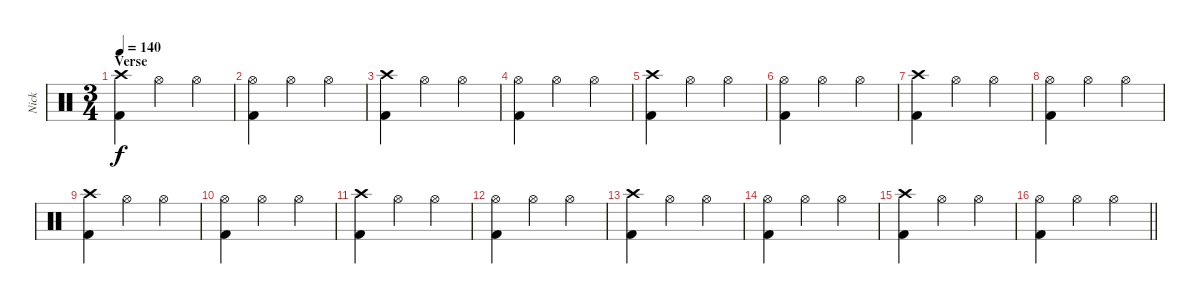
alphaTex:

\track ("Nick" "Nick") {instrument percussion}
\staff {score}
\articulation defaults
\ts (3 4)
\section ("" "Verse")
\tempo 140
\clef neutral
\ks c
("Crash high (hit)" "Kick (hit) 2").4{dy f} "Hi-Hat (open)".4 "Hi-Hat (open)".4 |
("Hi-Hat (open)" "Kick (hit) 2").4 "Hi-Hat (open)".4 "Hi-Hat (open)".4 |
("Crash high (hit)" "Kick (hit) 2").4 "Hi-Hat (open)".4 "Hi-Hat (open)".4 |
("Hi-Hat (open)" "Kick (hit) 2").4 "Hi-Hat (open)".4 "Hi-Hat (open)".4 |
("Crash high (hit)" "Kick (hit) 2").4 "Hi-Hat (open)".4 "Hi-Hat (open)".4 |
("Hi-Hat (open)" "Kick (hit) 2").4 "Hi-Hat (open)".4 "Hi-Hat (open)".4 |
("Crash high (hit)" "Kick (hit) 2").4 "Hi-Hat (open)".4 "Hi-Hat (open)".4 |
("Hi-Hat (open)" "Kick (hit) 2").4 "Hi-Hat (open)".4 "Hi-Hat (open)".4 |
("Crash high (hit)" "Kick (hit) 2").4 "Hi-Hat (open)".4 "Hi-Hat (open)".4 |
("Hi-Hat (open)" "Kick (hit) 2").4 "Hi-Hat (open)".4 "Hi-Hat (open)".4 |
("Crash high (hit)" "Kick (hit) 2").4 "Hi-Hat (open)".4 "Hi-Hat (open)".4 |
("Hi-Hat (open)" "Kick (hit) 2").4 "Hi-Hat (open)".4 "Hi-Hat (open)".4 |
("Crash high (hit)" "Kick (hit) 2").4 "Hi-Hat (open)".4 "Hi-Hat (open)".4 |
("Hi-Hat (open)" "Kick (hit) 2").4 "Hi-Hat (open)".4 "Hi-Hat (open)".4 |
("Crash high (hit)" "Kick (hit) 2").4 "Hi-Hat (open)".4 "Hi-Hat (open)".4 |
\barLineRight lightlight
("Hi-Hat (open)" "Kick (hit) 2").4 "Hi-Hat (open)".4 "Hi-Hat (open)".4
